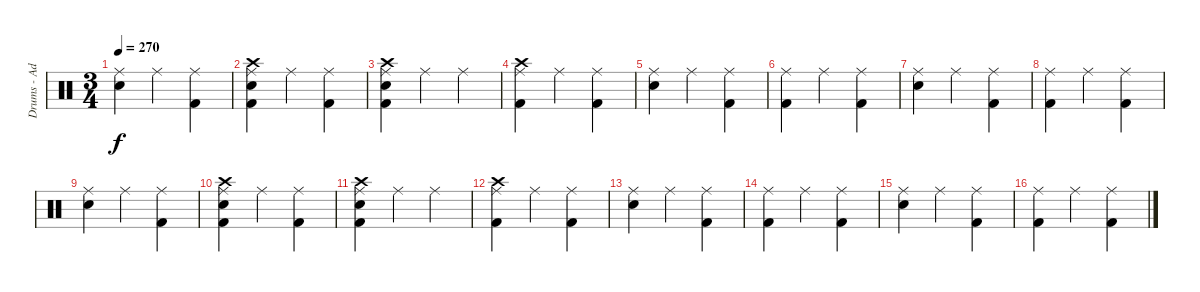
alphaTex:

\track ("Drums - Adam" "Drums - Ad") {instrument percussion}
\staff {score}
\articulation defaults
\ts (3 4)
\tempo 270
\clef neutral
\ks c
("Ride (middle)" "Electric Snare (hit)").4{dy f} "Ride (middle)".4 ("Ride (middle)" "Kick (hit) 2").4 |
("Ride (middle)" "Kick (hit) 2" "Electric Snare (hit)" "Crash high (hit)").4 "Ride (middle)".4 ("Ride (middle)" "Kick (hit) 2").4 |
("Ride (middle)" "Kick (hit) 2" "Electric Snare (hit)" "Crash high (hit)").4 "Ride (middle)".4 "Ride (middle)".4 |
("Ride (middle)" "Kick (hit) 2" "Crash high (hit)").4 "Ride (middle)".4 ("Ride (middle)" "Kick (hit) 2").4 |
("Ride (middle)" "Electric Snare (hit)").4 "Ride (middle)".4 ("Ride (middle)" "Kick (hit) 2").4 |
("Ride (middle)" "Kick (hit) 2").4 "Ride (middle)".4 ("Ride (middle)" "Kick (hit) 2").4 |
("Ride (middle)" "Electric Snare (hit)").4 "Ride (middle)".4 ("Ride (middle)" "Kick (hit) 2").4 |
("Ride (middle)" "Kick (hit) 2").4 "Ride (middle)".4 ("Ride (middle)" "Kick (hit) 2").4 |
("Ride (middle)" "Electric Snare (hit)").4 "Ride (middle)".4 ("Ride (middle)" "Kick (hit) 2").4 |
("Ride (middle)" "Kick (hit) 2" "Electric Snare (hit)" "Crash high (hit)").4 "Ride (middle)".4 ("Ride (middle)" "Kick (hit) 2").4 |
("Ride (middle)" "Kick (hit) 2" "Electric Snare (hit)" "Crash high (hit)").4 "Ride (middle)".4 "Ride (middle)".4 |
("Ride (middle)" "Kick (hit) 2" "Crash high (hit)").4 "Ride (middle)".4 ("Ride (middle)" "Kick (hit) 2").4 |
("Ride (middle)" "Electric Snare (hit)").4 "Ride (middle)".4 ("Ride (middle)" "Kick (hit) 2").4 |
("Ride (middle)" "Kick (hit) 2").4 "Ride (middle)".4 ("Ride (middle)" "Kick (hit) 2").4 |
("Ride (middle)" "Electric Snare (hit)").4 "Ride (middle)".4 ("Ride (middle)" "Kick (hit) 2").4 |
("Ride (middle)" "Kick (hit) 2").4 "Ride (middle)".4 ("Ride (middle)" "Kick (hit) 2").4
